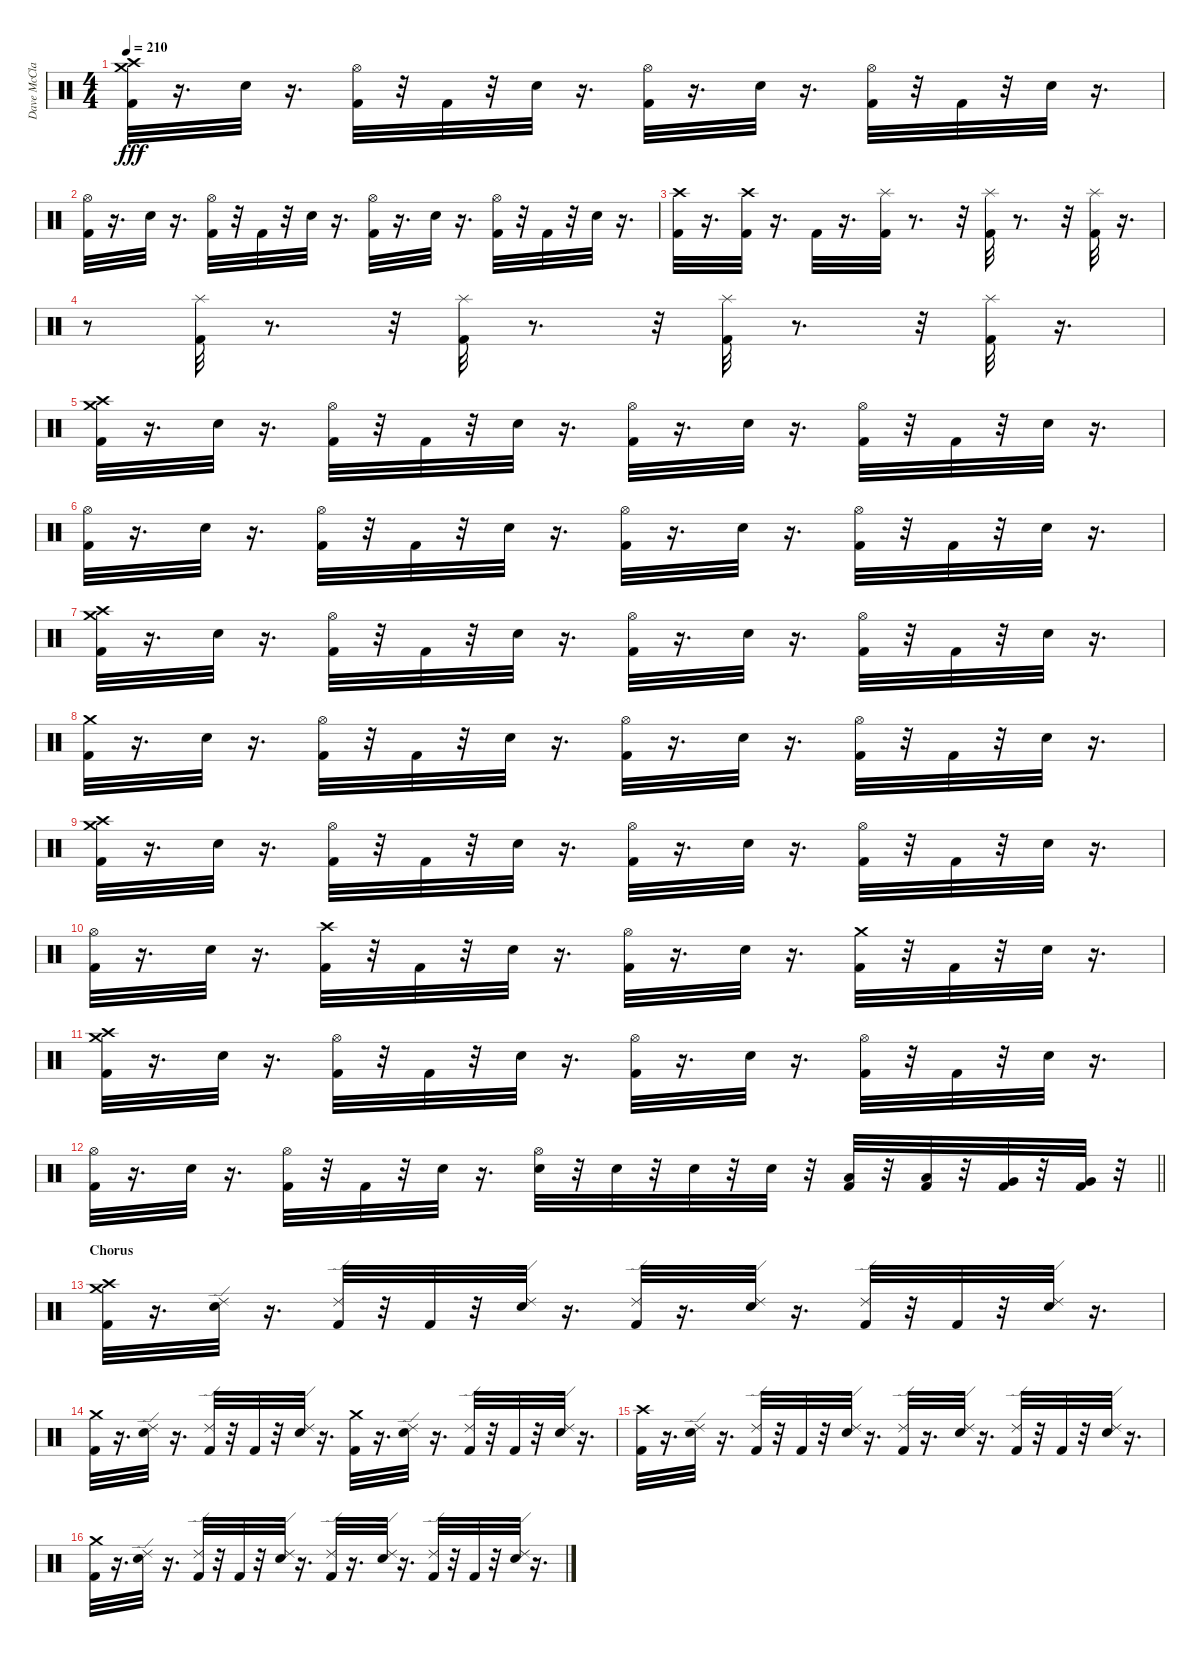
\track ("Dave McClain" "Dave McCla") {instrument percussion}
\staff {score}
\articulation defaults
\ts (4 4)
\tempo 210
\clef neutral
\ks c
("Crash medium (hit)" "Crash high (hit)" "Kick (hit) 2").32{dy fff} r.16{d} "Snare (hit) 2".32 r.16{d} ("Kick (hit) 2" "Hi-Hat (open)").32 r.32 "Kick (hit) 2".32 r.32 "Snare (hit) 2".32 r.16{d} ("Hi-Hat (open)" "Kick (hit) 2").32 r.16{d} "Snare (hit) 2".32 r.16{d} ("Hi-Hat (open)" "Kick (hit) 2").32 r.32 "Kick (hit) 2".32 r.32 "Snare (hit) 2".32 r.16{d} |
("Hi-Hat (open)" "Kick (hit) 2").32 r.16{d} "Snare (hit) 2".32 r.16{d} ("Hi-Hat (open)" "Kick (hit) 2").32 r.32 "Kick (hit) 2".32 r.32 "Snare (hit) 2".32 r.16{d} ("Hi-Hat (open)" "Kick (hit) 2").32 r.16{d} "Snare (hit) 2".32 r.16{d} ("Hi-Hat (open)" "Kick (hit) 2").32 r.32 "Kick (hit) 2".32 r.32 "Snare (hit) 2".32 r.16{d} |
("Crash high (hit)" "Kick (hit) 2").32 r.16{d} ("Crash high (hit)" "Kick (hit) 2").32 r.16{d} "Kick (hit) 2".32 r.16{d} ("Kick (hit) 2" "Splash (hit)").32 r.8{d} r.32 ("Kick (hit) 2" "Splash (hit)").32 r.8{d} r.32 ("Kick (hit) 2" "Splash (hit)").32 r.16{d} |
r.8 ("Kick (hit) 2" "Splash (hit)").32 r.8{d} r.32 ("Kick (hit) 2" "Splash (hit)").32 r.8{d} r.32 ("Kick (hit) 2" "Splash (hit)").32 r.8{d} r.32 ("Splash (hit)" "Kick (hit) 2").32 r.16{d} |
("Crash medium (hit)" "Crash high (hit)" "Kick (hit) 2").32 r.16{d} "Snare (hit) 2".32 r.16{d} ("Kick (hit) 2" "Hi-Hat (open)").32 r.32 "Kick (hit) 2".32 r.32 "Snare (hit) 2".32 r.16{d} ("Hi-Hat (open)" "Kick (hit) 2").32 r.16{d} "Snare (hit) 2".32 r.16{d} ("Hi-Hat (open)" "Kick (hit) 2").32 r.32 "Kick (hit) 2".32 r.32 "Snare (hit) 2".32 r.16{d} |
("Hi-Hat (open)" "Kick (hit) 2").32 r.16{d} "Snare (hit) 2".32 r.16{d} ("Hi-Hat (open)" "Kick (hit) 2").32 r.32 "Kick (hit) 2".32 r.32 "Snare (hit) 2".32 r.16{d} ("Hi-Hat (open)" "Kick (hit) 2").32 r.16{d} "Snare (hit) 2".32 r.16{d} ("Hi-Hat (open)" "Kick (hit) 2").32 r.32 "Kick (hit) 2".32 r.32 "Snare (hit) 2".32 r.16{d} |
("Crash medium (hit)" "Crash high (hit)" "Kick (hit) 2").32 r.16{d} "Snare (hit) 2".32 r.16{d} ("Kick (hit) 2" "Hi-Hat (open)").32 r.32 "Kick (hit) 2".32 r.32 "Snare (hit) 2".32 r.16{d} ("Hi-Hat (open)" "Kick (hit) 2").32 r.16{d} "Snare (hit) 2".32 r.16{d} ("Hi-Hat (open)" "Kick (hit) 2").32 r.32 "Kick (hit) 2".32 r.32 "Snare (hit) 2".32 r.16{d} |
("Crash medium (hit)" "Kick (hit) 2").32 r.16{d} "Snare (hit) 2".32 r.16{d} ("Hi-Hat (open)" "Kick (hit) 2").32 r.32 "Kick (hit) 2".32 r.32 "Snare (hit) 2".32 r.16{d} ("Hi-Hat (open)" "Kick (hit) 2").32 r.16{d} "Snare (hit) 2".32 r.16{d} ("Hi-Hat (open)" "Kick (hit) 2").32 r.32 "Kick (hit) 2".32 r.32 "Snare (hit) 2".32 r.16{d} |
("Crash medium (hit)" "Crash high (hit)" "Kick (hit) 2").32 r.16{d} "Snare (hit) 2".32 r.16{d} ("Kick (hit) 2" "Hi-Hat (open)").32 r.32 "Kick (hit) 2".32 r.32 "Snare (hit) 2".32 r.16{d} ("Hi-Hat (open)" "Kick (hit) 2").32 r.16{d} "Snare (hit) 2".32 r.16{d} ("Hi-Hat (open)" "Kick (hit) 2").32 r.32 "Kick (hit) 2".32 r.32 "Snare (hit) 2".32 r.16{d} |
("Hi-Hat (open)" "Kick (hit) 2").32 r.16{d} "Snare (hit) 2".32 r.16{d} ("Crash high (hit)" "Kick (hit) 2").32 r.32 "Kick (hit) 2".32 r.32 "Snare (hit) 2".32 r.16{d} ("Hi-Hat (open)" "Kick (hit) 2").32 r.16{d} "Snare (hit) 2".32 r.16{d} ("Crash medium (hit)" "Kick (hit) 2").32 r.32 "Kick (hit) 2".32 r.32 "Snare (hit) 2".32 r.16{d} |
("Crash medium (hit)" "Crash high (hit)" "Kick (hit) 2").32 r.16{d} "Snare (hit) 2".32 r.16{d} ("Kick (hit) 2" "Hi-Hat (open)").32 r.32 "Kick (hit) 2".32 r.32 "Snare (hit) 2".32 r.16{d} ("Hi-Hat (open)" "Kick (hit) 2").32 r.16{d} "Snare (hit) 2".32 r.16{d} ("Hi-Hat (open)" "Kick (hit) 2").32 r.32 "Kick (hit) 2".32 r.32 "Snare (hit) 2".32 r.16{d} |
\barLineRight lightlight
("Hi-Hat (open)" "Kick (hit) 2").32 r.16{d} "Snare (hit) 2".32 r.16{d} ("Hi-Hat (open)" "Kick (hit) 2").32 r.32 "Kick (hit) 2".32 r.32 "Snare (hit) 2".32 r.16{d} ("Snare (hit) 2" "Hi-Hat (open)").32 r.32 "Snare (hit) 2".32 r.32 "Snare (hit) 2".32 r.32 "Snare (hit) 2".32 r.32 ("Low Tom (hit)" "Kick (hit) 2").32 r.32 ("Low Tom (hit)" "Kick (hit) 2").32 r.32 ("Very Low Tom (hit)" "Kick (hit) 2").32 r.32 ("Very Low Tom (hit)" "Kick (hit) 2").32 r.32 |
\section ("" "Chorus")
("Crash medium (hit)" "Crash high (hit)" "Kick (hit) 2").32 r.16{d} ("Ride (edge) 2" "Snare (hit) 2").32 r.16{d} ("Ride (edge) 2" "Kick (hit) 2").32 r.32 "Kick (hit) 2".32 r.32 ("Ride (edge) 2" "Snare (hit) 2").32 r.16{d} ("Ride (edge) 2" "Kick (hit) 2").32 r.16{d} ("Ride (edge) 2" "Snare (hit) 2").32 r.16{d} ("Ride (edge) 2" "Kick (hit) 2").32 r.32 "Kick (hit) 2".32 r.32 ("Ride (edge) 2" "Snare (hit) 2").32 r.16{d} |
("Crash medium (hit)" "Kick (hit) 2").32 r.16{d} ("Ride (edge) 2" "Snare (hit) 2").32 r.16{d} ("Ride (edge) 2" "Kick (hit) 2").32 r.32 "Kick (hit) 2".32 r.32 ("Ride (edge) 2" "Snare (hit) 2").32 r.16{d} ("Crash medium (hit)" "Kick (hit) 2").32 r.16{d} ("Ride (edge) 2" "Snare (hit) 2").32 r.16{d} ("Ride (edge) 2" "Kick (hit) 2").32 r.32 "Kick (hit) 2".32 r.32 ("Ride (edge) 2" "Snare (hit) 2").32 r.16{d} |
("Crash high (hit)" "Kick (hit) 2").32 r.16{d} ("Ride (edge) 2" "Snare (hit) 2").32 r.16{d} ("Ride (edge) 2" "Kick (hit) 2").32 r.32 "Kick (hit) 2".32 r.32 ("Ride (edge) 2" "Snare (hit) 2").32 r.16{d} ("Ride (edge) 2" "Kick (hit) 2").32 r.16{d} ("Ride (edge) 2" "Snare (hit) 2").32 r.16{d} ("Ride (edge) 2" "Kick (hit) 2").32 r.32 "Kick (hit) 2".32 r.32 ("Ride (edge) 2" "Snare (hit) 2").32 r.16{d} |
("Crash medium (hit)" "Kick (hit) 2").32 r.16{d} ("Ride (edge) 2" "Snare (hit) 2").32 r.16{d} ("Ride (edge) 2" "Kick (hit) 2").32 r.32 "Kick (hit) 2".32 r.32 ("Ride (edge) 2" "Snare (hit) 2").32 r.16{d} ("Ride (edge) 2" "Kick (hit) 2").32 r.16{d} ("Ride (edge) 2" "Snare (hit) 2").32 r.16{d} ("Ride (edge) 2" "Kick (hit) 2").32 r.32 "Kick (hit) 2".32 r.32 ("Ride (edge) 2" "Snare (hit) 2").32 r.16{d}
